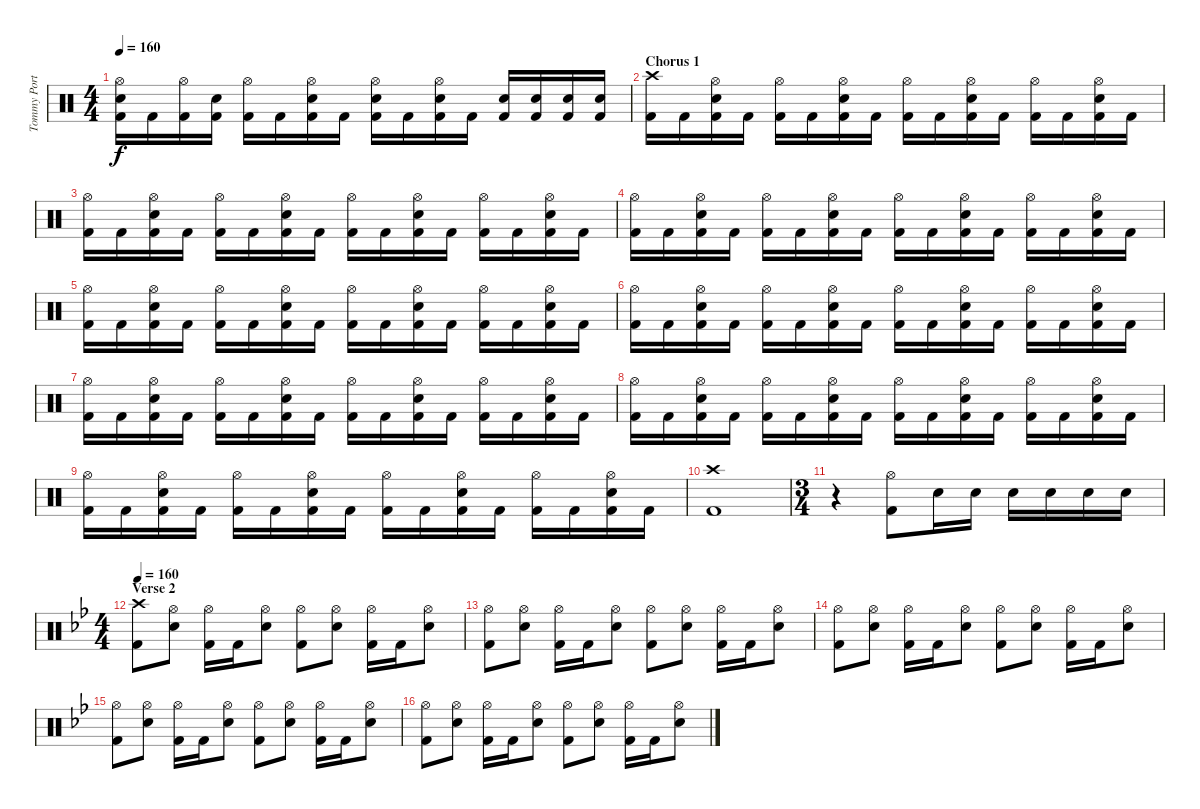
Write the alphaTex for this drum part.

\track ("Tommy Portimo" "Tommy Port") {instrument percussion}
\staff {score}
\articulation defaults
\ts (4 4)
\tempo 160
\clef neutral
\ks c
("Hi-Hat (open)" "Snare (hit) 2" "Kick (hit) 2").16{dy f} "Kick (hit) 2".16 ("Hi-Hat (open)" "Kick (hit) 2").16 ("Snare (hit) 2" "Kick (hit) 2").16 ("Hi-Hat (open)" "Kick (hit) 2").16 "Kick (hit) 2".16 ("Hi-Hat (open)" "Snare (hit) 2" "Kick (hit) 2").16 "Kick (hit) 2".16 ("Hi-Hat (open)" "Snare (hit) 2" "Kick (hit) 2").16 "Kick (hit) 2".16 ("Hi-Hat (open)" "Snare (hit) 2" "Kick (hit) 2").16 "Kick (hit) 2".16 ("Snare (hit) 2" "Kick (hit) 2").16 ("Snare (hit) 2" "Kick (hit) 2").16 ("Snare (hit) 2" "Kick (hit) 2").16 ("Snare (hit) 2" "Kick (hit) 2").16 |
\section ("" "Chorus 1")
("Crash high (hit)" "Kick (hit) 2").16 "Kick (hit) 2".16 ("Hi-Hat (open)" "Snare (hit) 2" "Kick (hit) 2").16 "Kick (hit) 2".16 ("Hi-Hat (open)" "Kick (hit) 2").16 "Kick (hit) 2".16 ("Hi-Hat (open)" "Snare (hit) 2" "Kick (hit) 2").16 "Kick (hit) 2".16 ("Hi-Hat (open)" "Kick (hit) 2").16 "Kick (hit) 2".16 ("Hi-Hat (open)" "Snare (hit) 2" "Kick (hit) 2").16 "Kick (hit) 2".16 ("Hi-Hat (open)" "Kick (hit) 2").16 "Kick (hit) 2".16 ("Hi-Hat (open)" "Snare (hit) 2" "Kick (hit) 2").16 "Kick (hit) 2".16 |
("Hi-Hat (open)" "Kick (hit) 2").16 "Kick (hit) 2".16 ("Hi-Hat (open)" "Snare (hit) 2" "Kick (hit) 2").16 "Kick (hit) 2".16 ("Hi-Hat (open)" "Kick (hit) 2").16 "Kick (hit) 2".16 ("Hi-Hat (open)" "Snare (hit) 2" "Kick (hit) 2").16 "Kick (hit) 2".16 ("Hi-Hat (open)" "Kick (hit) 2").16 "Kick (hit) 2".16 ("Hi-Hat (open)" "Snare (hit) 2" "Kick (hit) 2").16 "Kick (hit) 2".16 ("Hi-Hat (open)" "Kick (hit) 2").16 "Kick (hit) 2".16 ("Hi-Hat (open)" "Snare (hit) 2" "Kick (hit) 2").16 "Kick (hit) 2".16 |
("Hi-Hat (open)" "Kick (hit) 2").16 "Kick (hit) 2".16 ("Hi-Hat (open)" "Snare (hit) 2" "Kick (hit) 2").16 "Kick (hit) 2".16 ("Hi-Hat (open)" "Kick (hit) 2").16 "Kick (hit) 2".16 ("Hi-Hat (open)" "Snare (hit) 2" "Kick (hit) 2").16 "Kick (hit) 2".16 ("Hi-Hat (open)" "Kick (hit) 2").16 "Kick (hit) 2".16 ("Hi-Hat (open)" "Snare (hit) 2" "Kick (hit) 2").16 "Kick (hit) 2".16 ("Hi-Hat (open)" "Kick (hit) 2").16 "Kick (hit) 2".16 ("Hi-Hat (open)" "Snare (hit) 2" "Kick (hit) 2").16 "Kick (hit) 2".16 |
("Hi-Hat (open)" "Kick (hit) 2").16 "Kick (hit) 2".16 ("Hi-Hat (open)" "Snare (hit) 2" "Kick (hit) 2").16 "Kick (hit) 2".16 ("Hi-Hat (open)" "Kick (hit) 2").16 "Kick (hit) 2".16 ("Hi-Hat (open)" "Snare (hit) 2" "Kick (hit) 2").16 "Kick (hit) 2".16 ("Hi-Hat (open)" "Kick (hit) 2").16 "Kick (hit) 2".16 ("Hi-Hat (open)" "Snare (hit) 2" "Kick (hit) 2").16 "Kick (hit) 2".16 ("Hi-Hat (open)" "Kick (hit) 2").16 "Kick (hit) 2".16 ("Hi-Hat (open)" "Snare (hit) 2" "Kick (hit) 2").16 "Kick (hit) 2".16 |
("Hi-Hat (open)" "Kick (hit) 2").16 "Kick (hit) 2".16 ("Hi-Hat (open)" "Snare (hit) 2" "Kick (hit) 2").16 "Kick (hit) 2".16 ("Hi-Hat (open)" "Kick (hit) 2").16 "Kick (hit) 2".16 ("Hi-Hat (open)" "Snare (hit) 2" "Kick (hit) 2").16 "Kick (hit) 2".16 ("Hi-Hat (open)" "Kick (hit) 2").16 "Kick (hit) 2".16 ("Hi-Hat (open)" "Snare (hit) 2" "Kick (hit) 2").16 "Kick (hit) 2".16 ("Hi-Hat (open)" "Kick (hit) 2").16 "Kick (hit) 2".16 ("Hi-Hat (open)" "Snare (hit) 2" "Kick (hit) 2").16 "Kick (hit) 2".16 |
("Hi-Hat (open)" "Kick (hit) 2").16 "Kick (hit) 2".16 ("Hi-Hat (open)" "Snare (hit) 2" "Kick (hit) 2").16 "Kick (hit) 2".16 ("Hi-Hat (open)" "Kick (hit) 2").16 "Kick (hit) 2".16 ("Hi-Hat (open)" "Snare (hit) 2" "Kick (hit) 2").16 "Kick (hit) 2".16 ("Hi-Hat (open)" "Kick (hit) 2").16 "Kick (hit) 2".16 ("Hi-Hat (open)" "Snare (hit) 2" "Kick (hit) 2").16 "Kick (hit) 2".16 ("Hi-Hat (open)" "Kick (hit) 2").16 "Kick (hit) 2".16 ("Hi-Hat (open)" "Snare (hit) 2" "Kick (hit) 2").16 "Kick (hit) 2".16 |
("Hi-Hat (open)" "Kick (hit) 2").16 "Kick (hit) 2".16 ("Hi-Hat (open)" "Snare (hit) 2" "Kick (hit) 2").16 "Kick (hit) 2".16 ("Hi-Hat (open)" "Kick (hit) 2").16 "Kick (hit) 2".16 ("Hi-Hat (open)" "Snare (hit) 2" "Kick (hit) 2").16 "Kick (hit) 2".16 ("Hi-Hat (open)" "Kick (hit) 2").16 "Kick (hit) 2".16 ("Hi-Hat (open)" "Snare (hit) 2" "Kick (hit) 2").16 "Kick (hit) 2".16 ("Hi-Hat (open)" "Kick (hit) 2").16 "Kick (hit) 2".16 ("Hi-Hat (open)" "Snare (hit) 2" "Kick (hit) 2").16 "Kick (hit) 2".16 |
("Hi-Hat (open)" "Kick (hit) 2").16 "Kick (hit) 2".16 ("Hi-Hat (open)" "Snare (hit) 2" "Kick (hit) 2").16 "Kick (hit) 2".16 ("Hi-Hat (open)" "Kick (hit) 2").16 "Kick (hit) 2".16 ("Hi-Hat (open)" "Snare (hit) 2" "Kick (hit) 2").16 "Kick (hit) 2".16 ("Hi-Hat (open)" "Kick (hit) 2").16 "Kick (hit) 2".16 ("Hi-Hat (open)" "Snare (hit) 2" "Kick (hit) 2").16 "Kick (hit) 2".16 ("Hi-Hat (open)" "Kick (hit) 2").16 "Kick (hit) 2".16 ("Hi-Hat (open)" "Snare (hit) 2" "Kick (hit) 2").16 "Kick (hit) 2".16 |
("Crash high (hit)" "Kick (hit) 2").1 |
\ts (3 4)
r.4 ("Hi-Hat (open)" "Kick (hit) 2").8 "Snare (hit) 2".16 "Snare (hit) 2".16 "Snare (hit) 2".16 "Snare (hit) 2".16 "Snare (hit) 2".16 "Snare (hit) 2".16 |
\ts (4 4)
\section ("" "Verse 2")
\tempo 160
\ks gminor
("Crash high (hit)" "Kick (hit) 2").8 ("Hi-Hat (open)" "Snare (hit) 2").8 ("Hi-Hat (open)" "Kick (hit) 2").16 "Kick (hit) 2".16 ("Hi-Hat (open)" "Snare (hit) 2").8 ("Hi-Hat (open)" "Kick (hit) 2").8 ("Hi-Hat (open)" "Snare (hit) 2").8 ("Hi-Hat (open)" "Kick (hit) 2").16 "Kick (hit) 2".16 ("Hi-Hat (open)" "Snare (hit) 2").8 |
("Hi-Hat (open)" "Kick (hit) 2").8 ("Hi-Hat (open)" "Snare (hit) 2").8 ("Hi-Hat (open)" "Kick (hit) 2").16 "Kick (hit) 2".16 ("Hi-Hat (open)" "Snare (hit) 2").8 ("Hi-Hat (open)" "Kick (hit) 2").8 ("Hi-Hat (open)" "Snare (hit) 2").8 ("Hi-Hat (open)" "Kick (hit) 2").16 "Kick (hit) 2".16 ("Hi-Hat (open)" "Snare (hit) 2").8 |
("Hi-Hat (open)" "Kick (hit) 2").8 ("Hi-Hat (open)" "Snare (hit) 2").8 ("Hi-Hat (open)" "Kick (hit) 2").16 "Kick (hit) 2".16 ("Hi-Hat (open)" "Snare (hit) 2").8 ("Hi-Hat (open)" "Kick (hit) 2").8 ("Hi-Hat (open)" "Snare (hit) 2").8 ("Hi-Hat (open)" "Kick (hit) 2").16 "Kick (hit) 2".16 ("Hi-Hat (open)" "Snare (hit) 2").8 |
("Hi-Hat (open)" "Kick (hit) 2").8 ("Hi-Hat (open)" "Snare (hit) 2").8 ("Hi-Hat (open)" "Kick (hit) 2").16 "Kick (hit) 2".16 ("Hi-Hat (open)" "Snare (hit) 2").8 ("Hi-Hat (open)" "Kick (hit) 2").8 ("Hi-Hat (open)" "Snare (hit) 2").8 ("Hi-Hat (open)" "Kick (hit) 2").16 "Kick (hit) 2".16 ("Hi-Hat (open)" "Snare (hit) 2").8 |
("Hi-Hat (open)" "Kick (hit) 2").8 ("Hi-Hat (open)" "Snare (hit) 2").8 ("Hi-Hat (open)" "Kick (hit) 2").16 "Kick (hit) 2".16 ("Hi-Hat (open)" "Snare (hit) 2").8 ("Hi-Hat (open)" "Kick (hit) 2").8 ("Hi-Hat (open)" "Snare (hit) 2").8 ("Hi-Hat (open)" "Kick (hit) 2").16 "Kick (hit) 2".16 ("Hi-Hat (open)" "Snare (hit) 2").8
